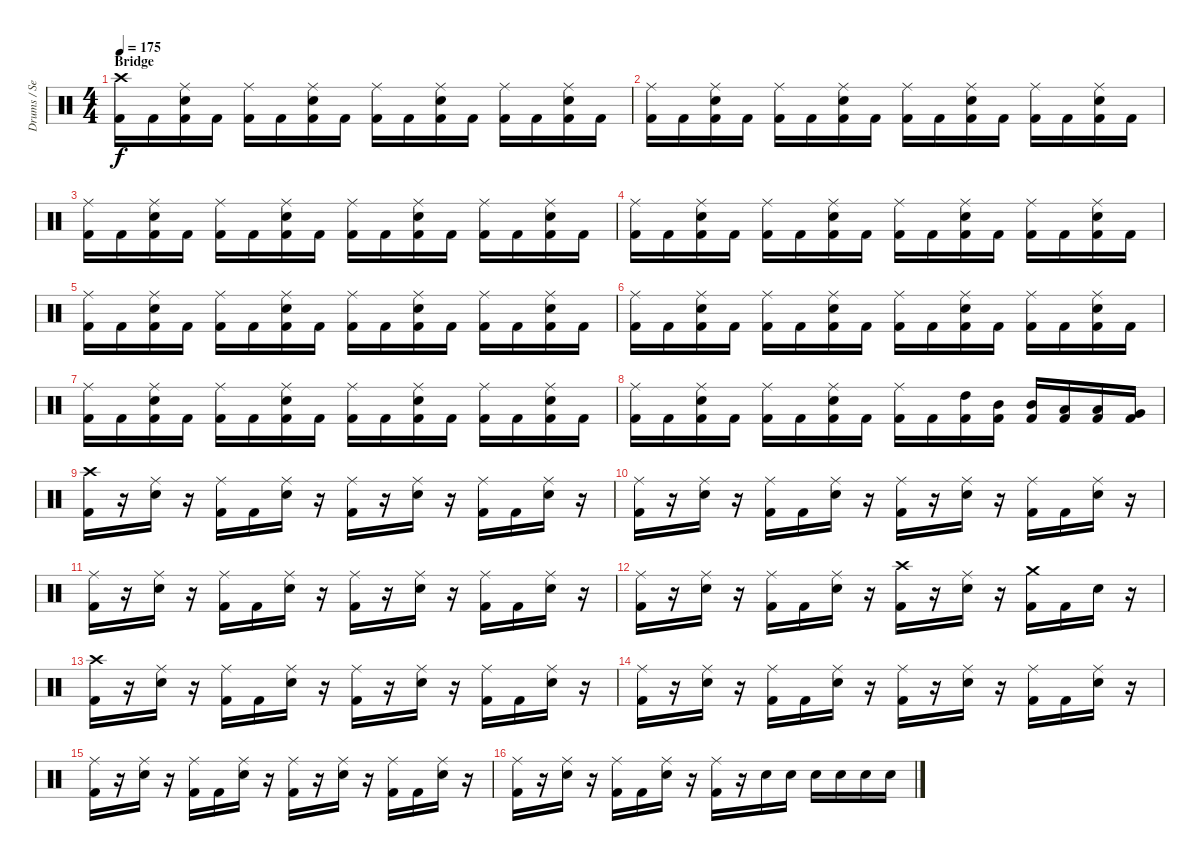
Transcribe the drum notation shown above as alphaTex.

\track ("Drums / Sean" "Drums / Se") {instrument percussion}
\staff {score}
\articulation defaults
\ts (4 4)
\section ("" "Bridge")
\tempo 175
\clef neutral
\ks c
("Crash high (hit)" "Kick (hit) 2").16{dy f} "Kick (hit) 2".16 ("Ride (middle)" "Electric Snare (hit)" "Kick (hit) 2").16 "Kick (hit) 2".16 ("Ride (middle)" "Kick (hit) 2").16 "Kick (hit) 2".16 ("Ride (middle)" "Electric Snare (hit)" "Kick (hit) 2").16 "Kick (hit) 2".16 ("Ride (middle)" "Kick (hit) 2").16 "Kick (hit) 2".16 ("Ride (middle)" "Electric Snare (hit)" "Kick (hit) 2").16 "Kick (hit) 2".16 ("Ride (middle)" "Kick (hit) 2").16 "Kick (hit) 2".16 ("Ride (middle)" "Electric Snare (hit)" "Kick (hit) 2").16 "Kick (hit) 2".16 |
("Ride (middle)" "Kick (hit) 2").16 "Kick (hit) 2".16 ("Ride (middle)" "Electric Snare (hit)" "Kick (hit) 2").16 "Kick (hit) 2".16 ("Ride (middle)" "Kick (hit) 2").16 "Kick (hit) 2".16 ("Ride (middle)" "Electric Snare (hit)" "Kick (hit) 2").16 "Kick (hit) 2".16 ("Ride (middle)" "Kick (hit) 2").16 "Kick (hit) 2".16 ("Ride (middle)" "Electric Snare (hit)" "Kick (hit) 2").16 "Kick (hit) 2".16 ("Ride (middle)" "Kick (hit) 2").16 "Kick (hit) 2".16 ("Ride (middle)" "Electric Snare (hit)" "Kick (hit) 2").16 "Kick (hit) 2".16 |
("Ride (middle)" "Kick (hit) 2").16 "Kick (hit) 2".16 ("Ride (middle)" "Electric Snare (hit)" "Kick (hit) 2").16 "Kick (hit) 2".16 ("Ride (middle)" "Kick (hit) 2").16 "Kick (hit) 2".16 ("Ride (middle)" "Electric Snare (hit)" "Kick (hit) 2").16 "Kick (hit) 2".16 ("Ride (middle)" "Kick (hit) 2").16 "Kick (hit) 2".16 ("Ride (middle)" "Electric Snare (hit)" "Kick (hit) 2").16 "Kick (hit) 2".16 ("Ride (middle)" "Kick (hit) 2").16 "Kick (hit) 2".16 ("Ride (middle)" "Electric Snare (hit)" "Kick (hit) 2").16 "Kick (hit) 2".16 |
("Ride (middle)" "Kick (hit) 2").16 "Kick (hit) 2".16 ("Ride (middle)" "Electric Snare (hit)" "Kick (hit) 2").16 "Kick (hit) 2".16 ("Ride (middle)" "Kick (hit) 2").16 "Kick (hit) 2".16 ("Ride (middle)" "Electric Snare (hit)" "Kick (hit) 2").16 "Kick (hit) 2".16 ("Ride (middle)" "Kick (hit) 2").16 "Kick (hit) 2".16 ("Ride (middle)" "Electric Snare (hit)" "Kick (hit) 2").16 "Kick (hit) 2".16 ("Ride (middle)" "Kick (hit) 2").16 "Kick (hit) 2".16 ("Ride (middle)" "Electric Snare (hit)" "Kick (hit) 2").16 "Kick (hit) 2".16 |
("Ride (middle)" "Kick (hit) 2").16 "Kick (hit) 2".16 ("Ride (middle)" "Electric Snare (hit)" "Kick (hit) 2").16 "Kick (hit) 2".16 ("Ride (middle)" "Kick (hit) 2").16 "Kick (hit) 2".16 ("Ride (middle)" "Electric Snare (hit)" "Kick (hit) 2").16 "Kick (hit) 2".16 ("Ride (middle)" "Kick (hit) 2").16 "Kick (hit) 2".16 ("Ride (middle)" "Electric Snare (hit)" "Kick (hit) 2").16 "Kick (hit) 2".16 ("Ride (middle)" "Kick (hit) 2").16 "Kick (hit) 2".16 ("Ride (middle)" "Electric Snare (hit)" "Kick (hit) 2").16 "Kick (hit) 2".16 |
("Ride (middle)" "Kick (hit) 2").16 "Kick (hit) 2".16 ("Ride (middle)" "Electric Snare (hit)" "Kick (hit) 2").16 "Kick (hit) 2".16 ("Ride (middle)" "Kick (hit) 2").16 "Kick (hit) 2".16 ("Ride (middle)" "Electric Snare (hit)" "Kick (hit) 2").16 "Kick (hit) 2".16 ("Ride (middle)" "Kick (hit) 2").16 "Kick (hit) 2".16 ("Ride (middle)" "Electric Snare (hit)" "Kick (hit) 2").16 "Kick (hit) 2".16 ("Ride (middle)" "Kick (hit) 2").16 "Kick (hit) 2".16 ("Ride (middle)" "Electric Snare (hit)" "Kick (hit) 2").16 "Kick (hit) 2".16 |
("Ride (middle)" "Kick (hit) 2").16 "Kick (hit) 2".16 ("Ride (middle)" "Electric Snare (hit)" "Kick (hit) 2").16 "Kick (hit) 2".16 ("Ride (middle)" "Kick (hit) 2").16 "Kick (hit) 2".16 ("Ride (middle)" "Electric Snare (hit)" "Kick (hit) 2").16 "Kick (hit) 2".16 ("Ride (middle)" "Kick (hit) 2").16 "Kick (hit) 2".16 ("Ride (middle)" "Electric Snare (hit)" "Kick (hit) 2").16 "Kick (hit) 2".16 ("Ride (middle)" "Kick (hit) 2").16 "Kick (hit) 2".16 ("Ride (middle)" "Electric Snare (hit)" "Kick (hit) 2").16 "Kick (hit) 2".16 |
("Ride (middle)" "Kick (hit) 2").16 "Kick (hit) 2".16 ("Ride (middle)" "Electric Snare (hit)" "Kick (hit) 2").16 "Kick (hit) 2".16 ("Ride (middle)" "Kick (hit) 2").16 "Kick (hit) 2".16 ("Ride (middle)" "Electric Snare (hit)" "Kick (hit) 2").16 "Kick (hit) 2".16 ("Ride (middle)" "Kick (hit) 2").16 "Kick (hit) 2".16 ("High Tom (hit)" "Kick (hit) 2").16 ("Mid Tom (hit)" "Kick (hit) 2").16 ("Mid Tom (hit)" "Kick (hit) 2").16 ("Low Tom (hit)" "Kick (hit) 2").16 ("Low Tom (hit)" "Kick (hit) 2").16 ("Very Low Tom (hit)" "Kick (hit) 2").16 |
("Crash high (hit)" "Kick (hit) 2").16 r.16 ("Ride (middle)" "Electric Snare (hit)").16 r.16 ("Ride (middle)" "Kick (hit) 2").16 "Kick (hit) 2".16 ("Ride (middle)" "Electric Snare (hit)").16 r.16 ("Ride (middle)" "Kick (hit) 2").16 r.16 ("Ride (middle)" "Electric Snare (hit)").16 r.16 ("Ride (middle)" "Kick (hit) 2").16 "Kick (hit) 2".16 ("Ride (middle)" "Electric Snare (hit)").16 r.16 |
("Ride (middle)" "Kick (hit) 2").16 r.16 ("Ride (middle)" "Electric Snare (hit)").16 r.16 ("Ride (middle)" "Kick (hit) 2").16 "Kick (hit) 2".16 ("Ride (middle)" "Electric Snare (hit)").16 r.16 ("Ride (middle)" "Kick (hit) 2").16 r.16 ("Ride (middle)" "Electric Snare (hit)").16 r.16 ("Ride (middle)" "Kick (hit) 2").16 "Kick (hit) 2".16 ("Ride (middle)" "Electric Snare (hit)").16 r.16 |
("Ride (middle)" "Kick (hit) 2").16 r.16 ("Ride (middle)" "Electric Snare (hit)").16 r.16 ("Ride (middle)" "Kick (hit) 2").16 "Kick (hit) 2".16 ("Ride (middle)" "Electric Snare (hit)").16 r.16 ("Ride (middle)" "Kick (hit) 2").16 r.16 ("Ride (middle)" "Electric Snare (hit)").16 r.16 ("Ride (middle)" "Kick (hit) 2").16 "Kick (hit) 2".16 ("Ride (middle)" "Electric Snare (hit)").16 r.16 |
("Ride (middle)" "Kick (hit) 2").16 r.16 ("Ride (middle)" "Electric Snare (hit)").16 r.16 ("Ride (middle)" "Kick (hit) 2").16 "Kick (hit) 2".16 ("Ride (middle)" "Electric Snare (hit)").16 r.16 ("Crash high (hit)" "Kick (hit) 2").16 r.16 ("Ride (middle)" "Electric Snare (hit)").16 r.16 ("Crash medium (hit)" "Kick (hit) 2").16 "Kick (hit) 2".16 "Electric Snare (hit)".16 r.16 |
("Crash high (hit)" "Kick (hit) 2").16 r.16 ("Ride (middle)" "Electric Snare (hit)").16 r.16 ("Ride (middle)" "Kick (hit) 2").16 "Kick (hit) 2".16 ("Ride (middle)" "Electric Snare (hit)").16 r.16 ("Ride (middle)" "Kick (hit) 2").16 r.16 ("Ride (middle)" "Electric Snare (hit)").16 r.16 ("Ride (middle)" "Kick (hit) 2").16 "Kick (hit) 2".16 ("Ride (middle)" "Electric Snare (hit)").16 r.16 |
("Ride (middle)" "Kick (hit) 2").16 r.16 ("Ride (middle)" "Electric Snare (hit)").16 r.16 ("Ride (middle)" "Kick (hit) 2").16 "Kick (hit) 2".16 ("Ride (middle)" "Electric Snare (hit)").16 r.16 ("Ride (middle)" "Kick (hit) 2").16 r.16 ("Ride (middle)" "Electric Snare (hit)").16 r.16 ("Ride (middle)" "Kick (hit) 2").16 "Kick (hit) 2".16 ("Ride (middle)" "Electric Snare (hit)").16 r.16 |
("Ride (middle)" "Kick (hit) 2").16 r.16 ("Ride (middle)" "Electric Snare (hit)").16 r.16 ("Ride (middle)" "Kick (hit) 2").16 "Kick (hit) 2".16 ("Ride (middle)" "Electric Snare (hit)").16 r.16 ("Ride (middle)" "Kick (hit) 2").16 r.16 ("Ride (middle)" "Electric Snare (hit)").16 r.16 ("Ride (middle)" "Kick (hit) 2").16 "Kick (hit) 2".16 ("Ride (middle)" "Electric Snare (hit)").16 r.16 |
("Ride (middle)" "Kick (hit) 2").16 r.16 ("Ride (middle)" "Electric Snare (hit)").16 r.16 ("Ride (middle)" "Kick (hit) 2").16 "Kick (hit) 2".16 ("Ride (middle)" "Electric Snare (hit)").16 r.16 ("Ride (middle)" "Kick (hit) 2").16 r.16 "Electric Snare (hit)".16 "Electric Snare (hit)".16 "Electric Snare (hit)".16 "Electric Snare (hit)".16 "Electric Snare (hit)".16 "Electric Snare (hit)".16
